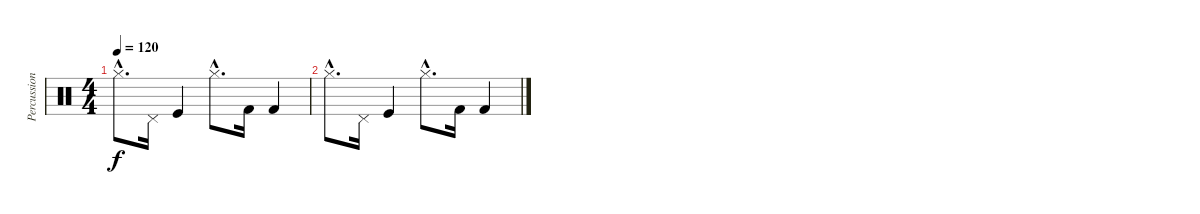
\track ("Percussions" "Percussion") {instrument percussion}
\staff {score}
\articulation defaults
\ts (4 4)
\tempo 120
\clef neutral
\ks c "Hi-Hat (closed)"{hac}.8{d dy f} "Pedal Hi-Hat (hit)".16 "Kick (hit)".4 "Hi-Hat (closed)"{hac}.8{d} "Kick (hit) 2".16 "Kick (hit) 2".4
|
"Hi-Hat (closed)"{hac}.8{d} "Pedal Hi-Hat (hit)".16 "Kick (hit)".4 "Hi-Hat (closed)"{hac}.8{d} "Kick (hit) 2".16 "Kick (hit) 2".4
